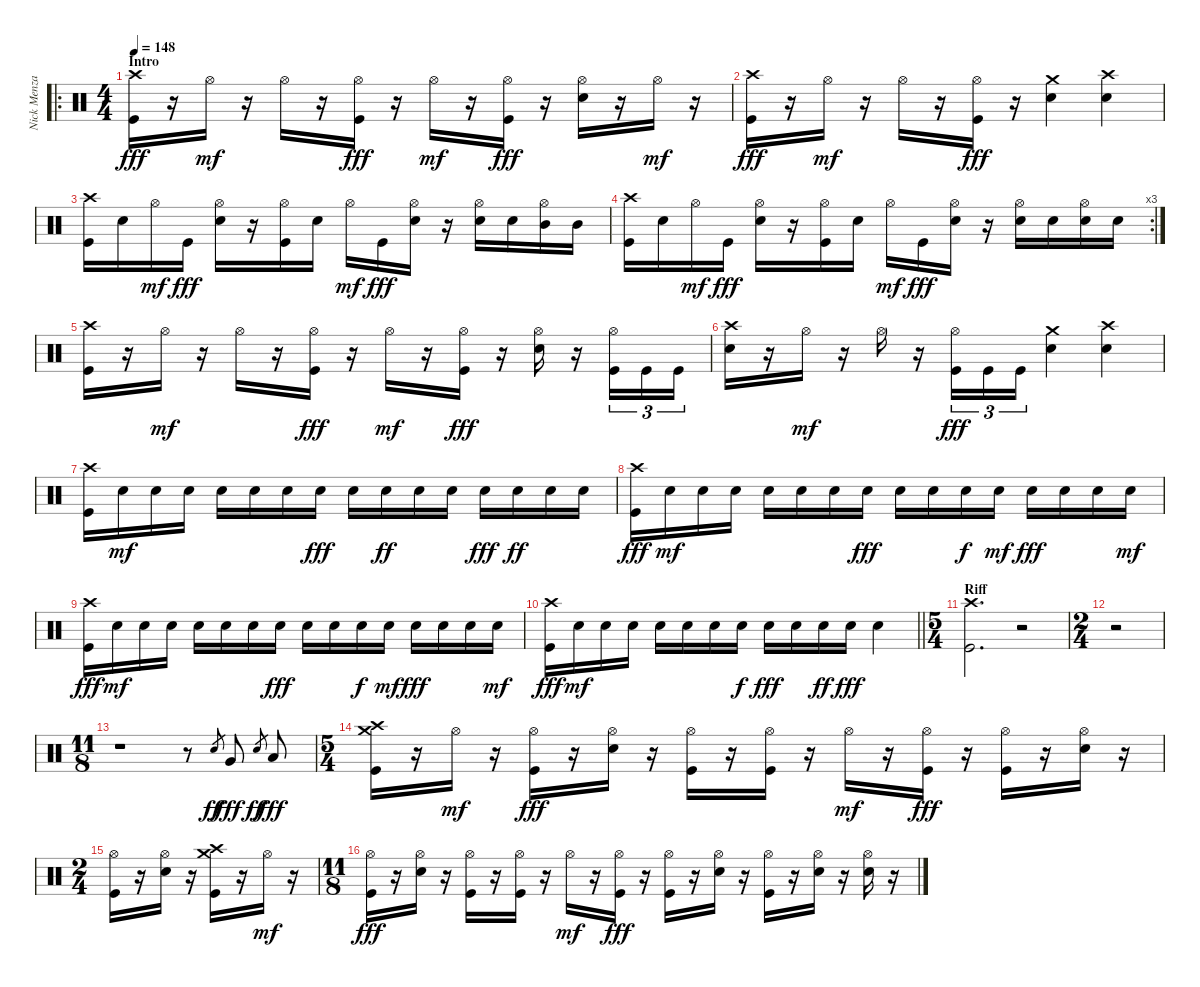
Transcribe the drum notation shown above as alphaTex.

\track ("Nick Menza" "Nick Menza") {instrument percussion}
\staff {score}
\articulation defaults
\ro
\ts (4 4)
\section ("" "Intro")
\tempo 148
\clef neutral
\ks c
("Kick (hit)" "Crash high (hit)").16{dy fff} r.16 "Hi-Hat (open)".16{dy mf} r.16 "Hi-Hat (open)".16 r.16 ("Kick (hit)" "Hi-Hat (open)").16{dy fff} r.16 "Hi-Hat (open)".16{dy mf} r.16 ("Kick (hit)" "Hi-Hat (open)").16{dy fff} r.16 ("Snare (hit) 2" "Hi-Hat (open)").16 r.16 "Hi-Hat (open)".16{dy mf} r.16 |
("Kick (hit)" "Crash high (hit)").16{dy fff} r.16 "Hi-Hat (open)".16{dy mf} r.16 "Hi-Hat (open)".16 r.16 ("Kick (hit)" "Hi-Hat (open)").16{dy fff} r.16 ("Snare (hit) 2" "Crash medium (hit)").4 ("Snare (hit) 2" "Crash high (hit)").4 |
("Kick (hit)" "Crash high (hit)").16 "Snare (hit) 2".16 "Hi-Hat (open)".16{dy mf} "Kick (hit)".16{dy fff} ("Snare (hit) 2" "Hi-Hat (open)").16 r.16 ("Kick (hit)" "Hi-Hat (open)").16 "Snare (hit) 2".16 "Hi-Hat (open)".16{dy mf} "Kick (hit)".16{dy fff} ("Snare (hit) 2" "Hi-Hat (open)").16 r.16 ("Snare (hit) 2" "Hi-Hat (open)").16 "Snare (hit) 2".16 ("Mid Tom (hit)" "Hi-Hat (open)").16 "Mid Tom (hit)".16 |
\rc 3
("Kick (hit)" "Crash high (hit)").16 "Snare (hit) 2".16 "Hi-Hat (open)".16{dy mf} "Kick (hit)".16{dy fff} ("Snare (hit) 2" "Hi-Hat (open)").16 r.16 ("Kick (hit)" "Hi-Hat (open)").16 "Snare (hit) 2".16 "Hi-Hat (open)".16{dy mf} "Kick (hit)".16{dy fff} ("Snare (hit) 2" "Hi-Hat (open)").16 r.16 ("Snare (hit) 2" "Hi-Hat (open)").16 "Snare (hit) 2".16 ("Snare (hit) 2" "Hi-Hat (open)").16 "Snare (hit) 2".16 |
("Kick (hit)" "Crash high (hit)").16 r.16 "Hi-Hat (open)".16{dy mf} r.16 "Hi-Hat (open)".16 r.16 ("Kick (hit)" "Hi-Hat (open)").16{dy fff} r.16 "Hi-Hat (open)".16{dy mf} r.16 ("Kick (hit)" "Hi-Hat (open)").16{dy fff} r.16 ("Snare (hit) 2" "Hi-Hat (open)").16 r.16 ("Kick (hit)" "Hi-Hat (open)").16{tu (3 2)} "Kick (hit)".16{tu (3 2)} "Kick (hit)".16{tu (3 2)} |
("Snare (hit) 2" "Crash high (hit)").16 r.16 "Hi-Hat (open)".16{dy mf} r.16 "Hi-Hat (open)".16 r.16 ("Kick (hit)" "Hi-Hat (open)").16{tu (3 2) dy fff} "Kick (hit)".16{tu (3 2)} "Kick (hit)".16{tu (3 2)} ("Snare (hit) 2" "Crash medium (hit)").4 ("Snare (hit) 2" "Crash high (hit)").4 |
("Kick (hit)" "Crash high (hit)").16 "Snare (hit) 2".16{dy mf} "Snare (hit) 2".16 "Snare (hit) 2".16 "Snare (hit) 2".16 "Snare (hit) 2".16 "Snare (hit) 2".16 "Snare (hit) 2".16{dy fff} "Snare (hit) 2".16 "Snare (hit) 2".16{dy ff} "Snare (hit) 2".16 "Snare (hit) 2".16 "Snare (hit) 2".16{dy fff} "Snare (hit) 2".16{dy ff} "Snare (hit) 2".16 "Snare (hit) 2".16 |
("Kick (hit)" "Crash high (hit)").16{dy fff} "Snare (hit) 2".16{dy mf} "Snare (hit) 2".16 "Snare (hit) 2".16 "Snare (hit) 2".16 "Snare (hit) 2".16 "Snare (hit) 2".16 "Snare (hit) 2".16{dy fff} "Snare (hit) 2".16 "Snare (hit) 2".16 "Snare (hit) 2".16{dy f} "Snare (hit) 2".16{dy mf} "Snare (hit) 2".16{dy fff} "Snare (hit) 2".16 "Snare (hit) 2".16 "Snare (hit) 2".16{dy mf} |
("Kick (hit)" "Crash high (hit)").16{dy fff} "Snare (hit) 2".16{dy mf} "Snare (hit) 2".16 "Snare (hit) 2".16 "Snare (hit) 2".16 "Snare (hit) 2".16 "Snare (hit) 2".16 "Snare (hit) 2".16{dy fff} "Snare (hit) 2".16 "Snare (hit) 2".16 "Snare (hit) 2".16{dy f} "Snare (hit) 2".16{dy mf} "Snare (hit) 2".16{dy fff} "Snare (hit) 2".16 "Snare (hit) 2".16 "Snare (hit) 2".16{dy mf} |
\barLineRight lightlight
("Kick (hit)" "Crash high (hit)").16{dy fff} "Snare (hit) 2".16{dy mf} "Snare (hit) 2".16 "Snare (hit) 2".16 "Snare (hit) 2".16 "Snare (hit) 2".16 "Snare (hit) 2".16 "Snare (hit) 2".16{dy f} "Snare (hit) 2".16{dy fff} "Snare (hit) 2".16 "Snare (hit) 2".16{dy ff} "Snare (hit) 2".16{dy fff} "Snare (hit) 2".4 |
\ts (5 4)
\section ("" "Riff")
("Kick (hit)" "Crash high (hit)").2{d} r.2 |
\ts (2 4)
r.2 |
\ts (11 8)
r.1 r.8 "Snare (hit)".8{gr dy ff} "Very Low Tom (hit)".8{dy fff} "Snare (hit)".8{gr dy ff} "Low Floor Tom (hit)".8{dy fff} |
\ts (5 4)
("Kick (hit)" "Crash high (hit)" "Crash medium (hit)").16 r.16 "Hi-Hat (open)".16{dy mf} r.16 ("Kick (hit)" "Hi-Hat (open)").16{dy fff} r.16 ("Snare (hit) 2" "Hi-Hat (open)").16 r.16 ("Kick (hit)" "Hi-Hat (open)").16 r.16 ("Kick (hit)" "Hi-Hat (open)").16 r.16 "Hi-Hat (open)".16{dy mf} r.16 ("Kick (hit)" "Hi-Hat (open)").16{dy fff} r.16 ("Kick (hit)" "Hi-Hat (open)").16 r.16 ("Snare (hit) 2" "Hi-Hat (open)").16 r.16 |
\ts (2 4)
("Kick (hit)" "Hi-Hat (open)").16 r.16 ("Snare (hit) 2" "Hi-Hat (open)").16 r.16 ("Kick (hit)" "Crash high (hit)" "Crash medium (hit)").16 r.16 "Hi-Hat (open)".16{dy mf} r.16 |
\ts (11 8)
("Kick (hit)" "Hi-Hat (open)").16{dy fff} r.16 ("Snare (hit) 2" "Hi-Hat (open)").16 r.16 ("Kick (hit)" "Hi-Hat (open)").16 r.16 ("Kick (hit)" "Hi-Hat (open)").16 r.16 "Hi-Hat (open)".16{dy mf} r.16 ("Kick (hit)" "Hi-Hat (open)").16{dy fff} r.16 ("Kick (hit)" "Hi-Hat (open)").16 r.16 ("Snare (hit) 2" "Hi-Hat (open)").16 r.16 ("Kick (hit)" "Hi-Hat (open)").16 r.16 ("Snare (hit) 2" "Hi-Hat (open)").16 r.16 ("Snare (hit) 2" "Hi-Hat (open)").16 r.16
